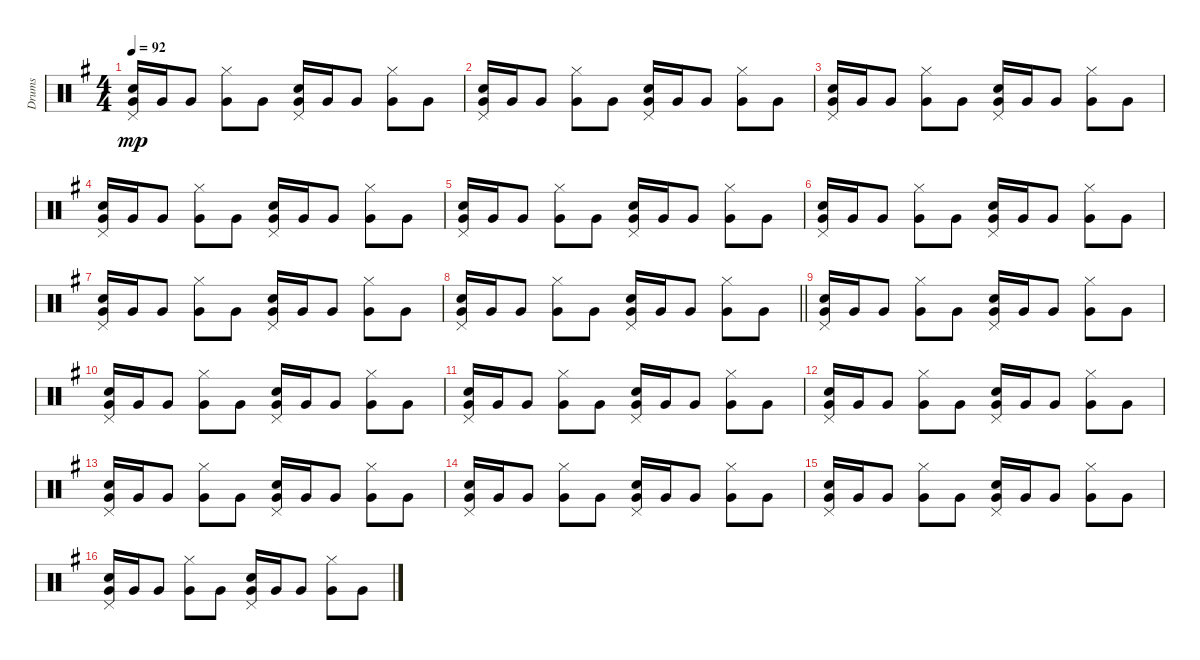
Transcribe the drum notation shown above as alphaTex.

\track ("Drums" "Drums") {instrument percussion}
\staff {score}
\articulation defaults
\ts (4 4)
\tempo 92
\clef neutral
\ks g
("Pedal Hi-Hat (hit)" "Very Low Tom (hit)" "Snare (hit) 2").16{dy mp} "Very Low Tom (hit)".16 "Very Low Tom (hit)".8 ("Hi-Hat (closed)" "Very Low Tom (hit)").8 "Very Low Tom (hit)".8 ("Pedal Hi-Hat (hit)" "Very Low Tom (hit)" "Snare (hit) 2").16 "Very Low Tom (hit)".16 "Very Low Tom (hit)".8 ("Hi-Hat (closed)" "Very Low Tom (hit)").8 "Very Low Tom (hit)".8 |
("Pedal Hi-Hat (hit)" "Very Low Tom (hit)" "Snare (hit) 2").16 "Very Low Tom (hit)".16 "Very Low Tom (hit)".8 ("Hi-Hat (closed)" "Very Low Tom (hit)").8 "Very Low Tom (hit)".8 ("Pedal Hi-Hat (hit)" "Very Low Tom (hit)" "Snare (hit) 2").16 "Very Low Tom (hit)".16 "Very Low Tom (hit)".8 ("Hi-Hat (closed)" "Very Low Tom (hit)").8 "Very Low Tom (hit)".8 |
("Pedal Hi-Hat (hit)" "Very Low Tom (hit)" "Snare (hit) 2").16 "Very Low Tom (hit)".16 "Very Low Tom (hit)".8 ("Hi-Hat (closed)" "Very Low Tom (hit)").8 "Very Low Tom (hit)".8 ("Pedal Hi-Hat (hit)" "Very Low Tom (hit)" "Snare (hit) 2").16 "Very Low Tom (hit)".16 "Very Low Tom (hit)".8 ("Hi-Hat (closed)" "Very Low Tom (hit)").8 "Very Low Tom (hit)".8 |
("Pedal Hi-Hat (hit)" "Very Low Tom (hit)" "Snare (hit) 2").16 "Very Low Tom (hit)".16 "Very Low Tom (hit)".8 ("Hi-Hat (closed)" "Very Low Tom (hit)").8 "Very Low Tom (hit)".8 ("Pedal Hi-Hat (hit)" "Very Low Tom (hit)" "Snare (hit) 2").16 "Very Low Tom (hit)".16 "Very Low Tom (hit)".8 ("Hi-Hat (closed)" "Very Low Tom (hit)").8 "Very Low Tom (hit)".8 |
("Pedal Hi-Hat (hit)" "Very Low Tom (hit)" "Snare (hit) 2").16 "Very Low Tom (hit)".16 "Very Low Tom (hit)".8 ("Hi-Hat (closed)" "Very Low Tom (hit)").8 "Very Low Tom (hit)".8 ("Pedal Hi-Hat (hit)" "Very Low Tom (hit)" "Snare (hit) 2").16 "Very Low Tom (hit)".16 "Very Low Tom (hit)".8 ("Hi-Hat (closed)" "Very Low Tom (hit)").8 "Very Low Tom (hit)".8 |
("Pedal Hi-Hat (hit)" "Very Low Tom (hit)" "Snare (hit) 2").16 "Very Low Tom (hit)".16 "Very Low Tom (hit)".8 ("Hi-Hat (closed)" "Very Low Tom (hit)").8 "Very Low Tom (hit)".8 ("Pedal Hi-Hat (hit)" "Very Low Tom (hit)" "Snare (hit) 2").16 "Very Low Tom (hit)".16 "Very Low Tom (hit)".8 ("Hi-Hat (closed)" "Very Low Tom (hit)").8 "Very Low Tom (hit)".8 |
("Pedal Hi-Hat (hit)" "Very Low Tom (hit)" "Snare (hit) 2").16 "Very Low Tom (hit)".16 "Very Low Tom (hit)".8 ("Hi-Hat (closed)" "Very Low Tom (hit)").8 "Very Low Tom (hit)".8 ("Pedal Hi-Hat (hit)" "Very Low Tom (hit)" "Snare (hit) 2").16 "Very Low Tom (hit)".16 "Very Low Tom (hit)".8 ("Hi-Hat (closed)" "Very Low Tom (hit)").8 "Very Low Tom (hit)".8 |
\barLineRight lightlight
("Pedal Hi-Hat (hit)" "Very Low Tom (hit)" "Snare (hit) 2").16 "Very Low Tom (hit)".16 "Very Low Tom (hit)".8 ("Hi-Hat (closed)" "Very Low Tom (hit)").8 "Very Low Tom (hit)".8 ("Pedal Hi-Hat (hit)" "Very Low Tom (hit)" "Snare (hit) 2").16 "Very Low Tom (hit)".16 "Very Low Tom (hit)".8 ("Hi-Hat (closed)" "Very Low Tom (hit)").8 "Very Low Tom (hit)".8 |
("Pedal Hi-Hat (hit)" "Very Low Tom (hit)" "Snare (hit) 2").16 "Very Low Tom (hit)".16 "Very Low Tom (hit)".8 ("Hi-Hat (closed)" "Very Low Tom (hit)").8 "Very Low Tom (hit)".8 ("Pedal Hi-Hat (hit)" "Very Low Tom (hit)" "Snare (hit) 2").16 "Very Low Tom (hit)".16 "Very Low Tom (hit)".8 ("Hi-Hat (closed)" "Very Low Tom (hit)").8 "Very Low Tom (hit)".8 |
("Pedal Hi-Hat (hit)" "Very Low Tom (hit)" "Snare (hit) 2").16 "Very Low Tom (hit)".16 "Very Low Tom (hit)".8 ("Hi-Hat (closed)" "Very Low Tom (hit)").8 "Very Low Tom (hit)".8 ("Pedal Hi-Hat (hit)" "Very Low Tom (hit)" "Snare (hit) 2").16 "Very Low Tom (hit)".16 "Very Low Tom (hit)".8 ("Hi-Hat (closed)" "Very Low Tom (hit)").8 "Very Low Tom (hit)".8 |
("Pedal Hi-Hat (hit)" "Very Low Tom (hit)" "Snare (hit) 2").16 "Very Low Tom (hit)".16 "Very Low Tom (hit)".8 ("Hi-Hat (closed)" "Very Low Tom (hit)").8 "Very Low Tom (hit)".8 ("Pedal Hi-Hat (hit)" "Very Low Tom (hit)" "Snare (hit) 2").16 "Very Low Tom (hit)".16 "Very Low Tom (hit)".8 ("Hi-Hat (closed)" "Very Low Tom (hit)").8 "Very Low Tom (hit)".8 |
("Pedal Hi-Hat (hit)" "Very Low Tom (hit)" "Snare (hit) 2").16 "Very Low Tom (hit)".16 "Very Low Tom (hit)".8 ("Hi-Hat (closed)" "Very Low Tom (hit)").8 "Very Low Tom (hit)".8 ("Pedal Hi-Hat (hit)" "Very Low Tom (hit)" "Snare (hit) 2").16 "Very Low Tom (hit)".16 "Very Low Tom (hit)".8 ("Hi-Hat (closed)" "Very Low Tom (hit)").8 "Very Low Tom (hit)".8 |
("Pedal Hi-Hat (hit)" "Very Low Tom (hit)" "Snare (hit) 2").16 "Very Low Tom (hit)".16 "Very Low Tom (hit)".8 ("Hi-Hat (closed)" "Very Low Tom (hit)").8 "Very Low Tom (hit)".8 ("Pedal Hi-Hat (hit)" "Very Low Tom (hit)" "Snare (hit) 2").16 "Very Low Tom (hit)".16 "Very Low Tom (hit)".8 ("Hi-Hat (closed)" "Very Low Tom (hit)").8 "Very Low Tom (hit)".8 |
("Pedal Hi-Hat (hit)" "Very Low Tom (hit)" "Snare (hit) 2").16 "Very Low Tom (hit)".16 "Very Low Tom (hit)".8 ("Hi-Hat (closed)" "Very Low Tom (hit)").8 "Very Low Tom (hit)".8 ("Pedal Hi-Hat (hit)" "Very Low Tom (hit)" "Snare (hit) 2").16 "Very Low Tom (hit)".16 "Very Low Tom (hit)".8 ("Hi-Hat (closed)" "Very Low Tom (hit)").8 "Very Low Tom (hit)".8 |
("Pedal Hi-Hat (hit)" "Very Low Tom (hit)" "Snare (hit) 2").16 "Very Low Tom (hit)".16 "Very Low Tom (hit)".8 ("Hi-Hat (closed)" "Very Low Tom (hit)").8 "Very Low Tom (hit)".8 ("Pedal Hi-Hat (hit)" "Very Low Tom (hit)" "Snare (hit) 2").16 "Very Low Tom (hit)".16 "Very Low Tom (hit)".8 ("Hi-Hat (closed)" "Very Low Tom (hit)").8 "Very Low Tom (hit)".8 |
("Pedal Hi-Hat (hit)" "Very Low Tom (hit)" "Snare (hit) 2").16 "Very Low Tom (hit)".16 "Very Low Tom (hit)".8 ("Hi-Hat (closed)" "Very Low Tom (hit)").8 "Very Low Tom (hit)".8 ("Pedal Hi-Hat (hit)" "Very Low Tom (hit)" "Snare (hit) 2").16 "Very Low Tom (hit)".16 "Very Low Tom (hit)".8 ("Hi-Hat (closed)" "Very Low Tom (hit)").8 "Very Low Tom (hit)".8
